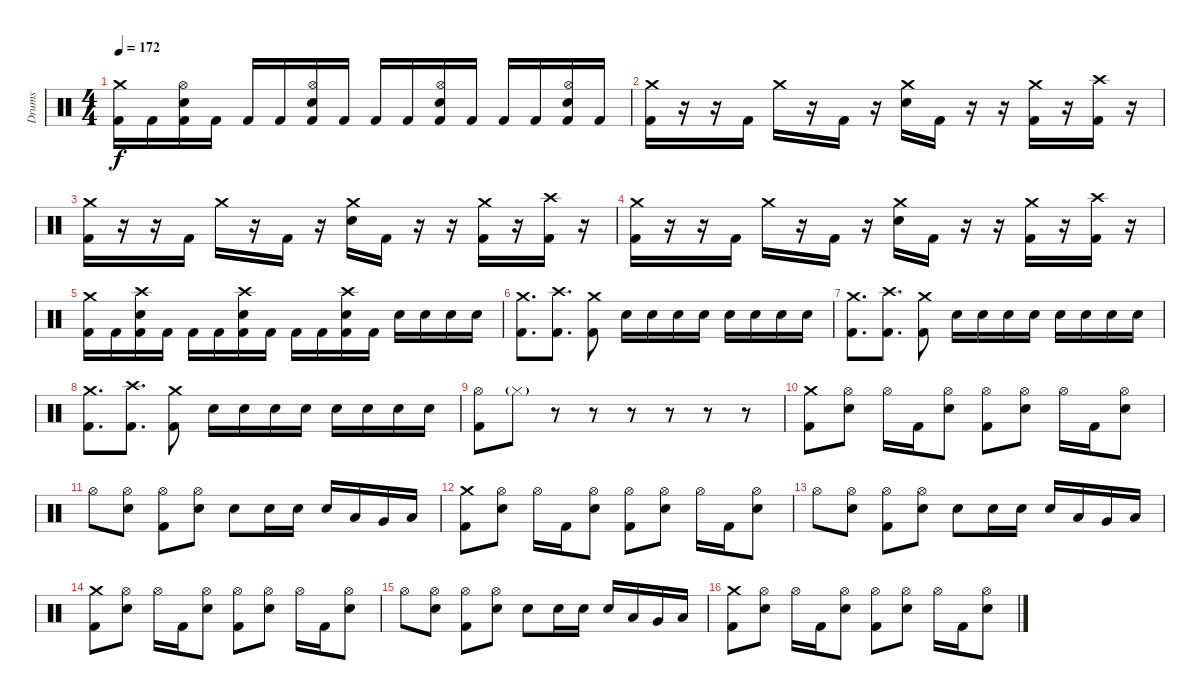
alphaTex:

\track ("Drums" "Drums") {instrument percussion}
\staff {score}
\articulation defaults
\ts (4 4)
\tempo 172
\clef neutral
\ks c
("Crash medium (hit)" "Kick (hit) 2").16{dy f} "Kick (hit) 2".16 ("Hi-Hat (open)" "Electric Snare (hit)" "Kick (hit) 2").16 "Kick (hit) 2".16 "Kick (hit) 2".16 "Kick (hit) 2".16 ("Hi-Hat (open)" "Electric Snare (hit)" "Kick (hit) 2").16 "Kick (hit) 2".16 "Kick (hit) 2".16 "Kick (hit) 2".16 ("Hi-Hat (open)" "Electric Snare (hit)" "Kick (hit) 2").16 "Kick (hit) 2".16 "Kick (hit) 2".16 "Kick (hit) 2".16 ("Hi-Hat (open)" "Electric Snare (hit)" "Kick (hit) 2").16 "Kick (hit) 2".16 |
("Crash medium (hit)" "Kick (hit) 2").16 r.16 r.16 "Kick (hit) 2".16 "Crash medium (hit)".16 r.16 "Kick (hit) 2".16 r.16 ("Crash medium (hit)" "Electric Snare (hit)").16 "Kick (hit) 2".16 r.16 r.16 ("Crash medium (hit)" "Kick (hit) 2").16 r.16 ("Crash high (hit)" "Kick (hit) 2").16 r.16 |
("Crash medium (hit)" "Kick (hit) 2").16 r.16 r.16 "Kick (hit) 2".16 "Crash medium (hit)".16 r.16 "Kick (hit) 2".16 r.16 ("Crash medium (hit)" "Electric Snare (hit)").16 "Kick (hit) 2".16 r.16 r.16 ("Crash medium (hit)" "Kick (hit) 2").16 r.16 ("Crash high (hit)" "Kick (hit) 2").16 r.16 |
("Crash medium (hit)" "Kick (hit) 2").16 r.16 r.16 "Kick (hit) 2".16 "Crash medium (hit)".16 r.16 "Kick (hit) 2".16 r.16 ("Crash medium (hit)" "Electric Snare (hit)").16 "Kick (hit) 2".16 r.16 r.16 ("Crash medium (hit)" "Kick (hit) 2").16 r.16 ("Crash high (hit)" "Kick (hit) 2").16 r.16 |
("Crash medium (hit)" "Kick (hit) 2").16 "Kick (hit) 2".16 ("Crash high (hit)" "Electric Snare (hit)" "Kick (hit) 2").16 "Kick (hit) 2".16 "Kick (hit) 2".16 "Kick (hit) 2".16 ("Crash high (hit)" "Electric Snare (hit)" "Kick (hit) 2").16 "Kick (hit) 2".16 "Kick (hit) 2".16 "Kick (hit) 2".16 ("Crash high (hit)" "Electric Snare (hit)" "Kick (hit) 2").16 "Kick (hit) 2".16 "Electric Snare (hit)".16 "Electric Snare (hit)".16 "Electric Snare (hit)".16 "Electric Snare (hit)".16 |
("Crash medium (hit)" "Kick (hit) 2").8{d} ("Crash high (hit)" "Kick (hit) 2").8{d} ("Crash medium (hit)" "Kick (hit) 2").8 "Electric Snare (hit)".16 "Electric Snare (hit)".16 "Electric Snare (hit)".16 "Electric Snare (hit)".16 "Electric Snare (hit)".16 "Electric Snare (hit)".16 "Electric Snare (hit)".16 "Electric Snare (hit)".16 |
("Crash medium (hit)" "Kick (hit) 2").8{d} ("Crash high (hit)" "Kick (hit) 2").8{d} ("Crash medium (hit)" "Kick (hit) 2").8 "Electric Snare (hit)".16 "Electric Snare (hit)".16 "Electric Snare (hit)".16 "Electric Snare (hit)".16 "Electric Snare (hit)".16 "Electric Snare (hit)".16 "Electric Snare (hit)".16 "Electric Snare (hit)".16 |
("Crash medium (hit)" "Kick (hit) 2").8{d} ("Crash high (hit)" "Kick (hit) 2").8{d} ("Crash medium (hit)" "Kick (hit) 2").8 "Electric Snare (hit)".16 "Electric Snare (hit)".16 "Electric Snare (hit)".16 "Electric Snare (hit)".16 "Electric Snare (hit)".16 "Electric Snare (hit)".16 "Electric Snare (hit)".16 "Electric Snare (hit)".16 |
("Hi-Hat (open)" "Kick (hit) 2").8 "Hi-Hat (closed)"{g}.8 r.8 r.8 r.8 r.8 r.8 r.8 |
("Crash medium (hit)" "Kick (hit) 2").8 ("Hi-Hat (open)" "Electric Snare (hit)").8 "Hi-Hat (open)".16 "Kick (hit) 2".16 ("Hi-Hat (open)" "Electric Snare (hit)").8 ("Hi-Hat (open)" "Kick (hit) 2").8 ("Hi-Hat (open)" "Electric Snare (hit)").8 "Hi-Hat (open)".16 "Kick (hit) 2".16 ("Hi-Hat (open)" "Electric Snare (hit)").8 |
"Hi-Hat (open)".8 ("Hi-Hat (open)" "Electric Snare (hit)").8 ("Hi-Hat (open)" "Kick (hit) 2").8 ("Hi-Hat (open)" "Electric Snare (hit)").8 "Electric Snare (hit)".8 "Electric Snare (hit)".16 "Electric Snare (hit)".16 "Electric Snare (hit)".16 "Low Tom (hit)".16 "Very Low Tom (hit)".16 "Low Floor Tom (hit)".16 |
("Crash medium (hit)" "Kick (hit) 2").8 ("Hi-Hat (open)" "Electric Snare (hit)").8 "Hi-Hat (open)".16 "Kick (hit) 2".16 ("Hi-Hat (open)" "Electric Snare (hit)").8 ("Hi-Hat (open)" "Kick (hit) 2").8 ("Hi-Hat (open)" "Electric Snare (hit)").8 "Hi-Hat (open)".16 "Kick (hit) 2".16 ("Hi-Hat (open)" "Electric Snare (hit)").8 |
"Hi-Hat (open)".8 ("Hi-Hat (open)" "Electric Snare (hit)").8 ("Hi-Hat (open)" "Kick (hit) 2").8 ("Hi-Hat (open)" "Electric Snare (hit)").8 "Electric Snare (hit)".8 "Electric Snare (hit)".16 "Electric Snare (hit)".16 "Electric Snare (hit)".16 "Low Tom (hit)".16 "Very Low Tom (hit)".16 "Low Floor Tom (hit)".16 |
("Crash medium (hit)" "Kick (hit) 2").8 ("Hi-Hat (open)" "Electric Snare (hit)").8 "Hi-Hat (open)".16 "Kick (hit) 2".16 ("Hi-Hat (open)" "Electric Snare (hit)").8 ("Hi-Hat (open)" "Kick (hit) 2").8 ("Hi-Hat (open)" "Electric Snare (hit)").8 "Hi-Hat (open)".16 "Kick (hit) 2".16 ("Hi-Hat (open)" "Electric Snare (hit)").8 |
"Hi-Hat (open)".8 ("Hi-Hat (open)" "Electric Snare (hit)").8 ("Hi-Hat (open)" "Kick (hit) 2").8 ("Hi-Hat (open)" "Electric Snare (hit)").8 "Electric Snare (hit)".8 "Electric Snare (hit)".16 "Electric Snare (hit)".16 "Electric Snare (hit)".16 "Low Tom (hit)".16 "Very Low Tom (hit)".16 "Low Floor Tom (hit)".16 |
("Crash medium (hit)" "Kick (hit) 2").8 ("Hi-Hat (open)" "Electric Snare (hit)").8 "Hi-Hat (open)".16 "Kick (hit) 2".16 ("Hi-Hat (open)" "Electric Snare (hit)").8 ("Hi-Hat (open)" "Kick (hit) 2").8 ("Hi-Hat (open)" "Electric Snare (hit)").8 "Hi-Hat (open)".16 "Kick (hit) 2".16 ("Hi-Hat (open)" "Electric Snare (hit)").8
